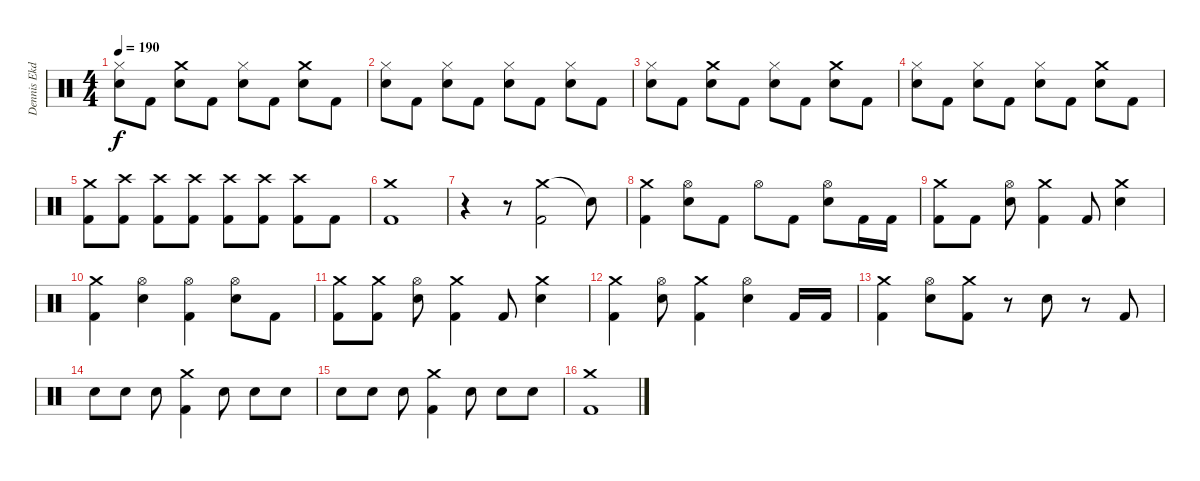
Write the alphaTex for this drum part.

\track ("Dennis Ekdahl" "Dennis Ekd") {instrument percussion}
\staff {score}
\articulation defaults
\ts (4 4)
\tempo 190
\clef neutral
\ks c
("Hi-Hat (closed)" "Snare (hit) 2").8{dy f} "Kick (hit) 2".8 ("Crash medium (hit)" "Snare (hit) 2").8 "Kick (hit) 2".8 ("Hi-Hat (closed)" "Snare (hit) 2").8 "Kick (hit) 2".8 ("Crash medium (hit)" "Snare (hit) 2").8 "Kick (hit) 2".8 |
("Hi-Hat (closed)" "Snare (hit) 2").8 "Kick (hit) 2".8 ("Hi-Hat (closed)" "Snare (hit) 2").8 "Kick (hit) 2".8 ("Hi-Hat (closed)" "Snare (hit) 2").8 "Kick (hit) 2".8 ("Hi-Hat (closed)" "Snare (hit) 2").8 "Kick (hit) 2".8 |
("Hi-Hat (closed)" "Snare (hit) 2").8 "Kick (hit) 2".8 ("Crash medium (hit)" "Snare (hit) 2").8 "Kick (hit) 2".8 ("Hi-Hat (closed)" "Snare (hit) 2").8 "Kick (hit) 2".8 ("Crash medium (hit)" "Snare (hit) 2").8 "Kick (hit) 2".8 |
("Hi-Hat (closed)" "Snare (hit) 2").8 "Kick (hit) 2".8 ("Hi-Hat (closed)" "Snare (hit) 2").8 "Kick (hit) 2".8 ("Hi-Hat (closed)" "Snare (hit) 2").8 "Kick (hit) 2".8 ("Crash medium (hit)" "Snare (hit) 2").8 "Kick (hit) 2".8 |
("Crash medium (hit)" "Kick (hit) 2").8 ("Crash high (hit)" "Kick (hit) 2").8 ("Crash high (hit)" "Kick (hit) 2").8 ("Crash high (hit)" "Kick (hit) 2").8 ("Crash high (hit)" "Kick (hit) 2").8 ("Crash high (hit)" "Kick (hit) 2").8 ("Crash high (hit)" "Kick (hit) 2").8 "Kick (hit) 2".8 |
("Crash medium (hit)" "Kick (hit) 2").1 |
r.4 r.8 ("Crash medium (hit)" "Kick (hit) 2").2 "Snare (hit)"{t}.8 |
("Crash medium (hit)" "Kick (hit) 2").4 ("Hi-Hat (open)" "Snare (hit) 2").8 "Kick (hit) 2".8 "Hi-Hat (open)".8 "Kick (hit) 2".8 ("Hi-Hat (open)" "Snare (hit) 2").8 "Kick (hit) 2".16 "Kick (hit) 2".16 |
("Crash medium (hit)" "Kick (hit) 2").8 "Kick (hit) 2".8 ("Hi-Hat (open)" "Snare (hit) 2").8 ("Crash medium (hit)" "Kick (hit) 2").4 "Kick (hit) 2".8 ("Crash medium (hit)" "Snare (hit) 2").4 |
("Crash medium (hit)" "Kick (hit) 2").4 ("Hi-Hat (open)" "Snare (hit) 2").4 ("Hi-Hat (open)" "Kick (hit) 2").4 ("Hi-Hat (open)" "Snare (hit) 2").8 "Kick (hit) 2".8 |
("Crash medium (hit)" "Kick (hit) 2").8 ("Crash medium (hit)" "Kick (hit) 2").8 ("Hi-Hat (open)" "Snare (hit) 2").8 ("Crash medium (hit)" "Kick (hit) 2").4 "Kick (hit) 2".8 ("Crash medium (hit)" "Snare (hit) 2").4 |
("Crash medium (hit)" "Kick (hit) 2").4 ("Hi-Hat (open)" "Snare (hit) 2").8 ("Crash medium (hit)" "Kick (hit) 2").4 ("Hi-Hat (open)" "Snare (hit) 2").4 "Kick (hit) 2".16 "Kick (hit) 2".16 |
("Crash medium (hit)" "Kick (hit) 2").4 ("Hi-Hat (open)" "Snare (hit) 2").8 ("Crash medium (hit)" "Kick (hit) 2").8 r.8 "Snare (hit) 2".8 r.8 "Kick (hit) 2".8 |
"Snare (hit) 2".8 "Snare (hit) 2".8 "Snare (hit) 2".8 ("Crash medium (hit)" "Kick (hit) 2").4 "Snare (hit) 2".8 "Snare (hit) 2".8 "Snare (hit) 2".8 |
"Snare (hit) 2".8 "Snare (hit) 2".8 "Snare (hit) 2".8 ("Crash medium (hit)" "Kick (hit) 2").4 "Snare (hit) 2".8 "Snare (hit) 2".8 "Snare (hit) 2".8 |
("Crash medium (hit)" "Kick (hit) 2").1
